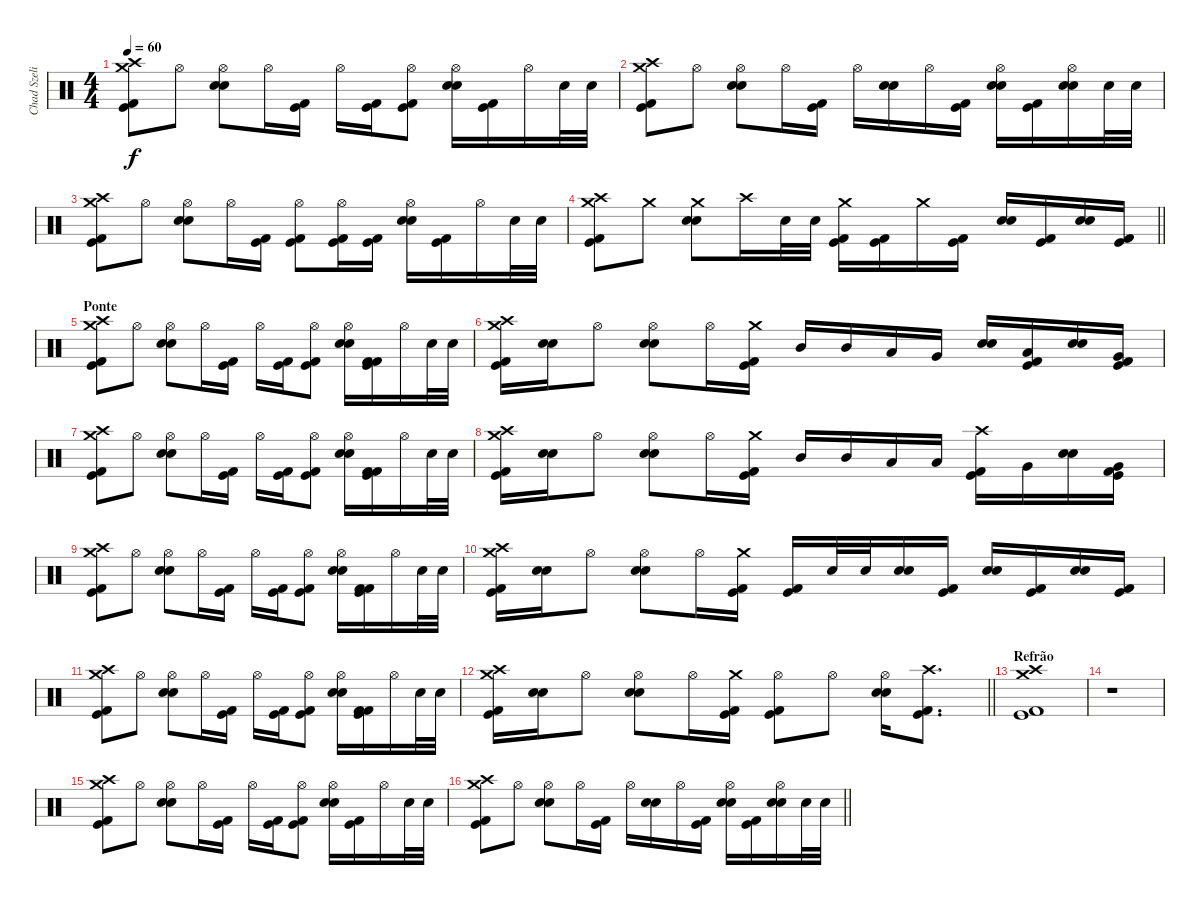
\track ("Chad Szeliga" "Chad Szeli") {instrument percussion}
\staff {score}
\articulation defaults
\ts (4 4)
\tempo 60
\clef neutral
\ks c
("Crash high (hit)" "Kick (hit) 2" "Kick (hit)" "Crash medium (hit)").8{dy f} "Hi-Hat (open)".8 ("Snare (hit) 2" "Snare (hit) 2" "Hi-Hat (open)").8 "Hi-Hat (open)".16 ("Kick (hit) 2" "Kick (hit)").16 "Hi-Hat (open)".16 ("Kick (hit) 2" "Kick (hit)").16 ("Kick (hit) 2" "Kick (hit)" "Hi-Hat (open)").8 ("Snare (hit) 2" "Snare (hit) 2" "Hi-Hat (open)").16 ("Kick (hit) 2" "Kick (hit)").16 "Hi-Hat (open)".16 "Snare (hit) 2".32 "Snare (hit) 2".32 |
("Crash high (hit)" "Kick (hit) 2" "Kick (hit)" "Crash medium (hit)").8 "Hi-Hat (open)".8 ("Snare (hit) 2" "Snare (hit) 2" "Hi-Hat (open)").8 "Hi-Hat (open)".16 ("Kick (hit) 2" "Kick (hit)").16 "Hi-Hat (open)".16 ("Snare (hit) 2" "Snare (hit) 2").16 "Hi-Hat (open)".16 ("Kick (hit) 2" "Kick (hit)").16 ("Snare (hit) 2" "Snare (hit) 2" "Hi-Hat (open)").16 ("Kick (hit) 2" "Kick (hit)").16 ("Snare (hit) 2" "Snare (hit) 2" "Hi-Hat (open)").16 "Snare (hit) 2".32 "Snare (hit) 2".32 |
("Crash high (hit)" "Kick (hit) 2" "Kick (hit)" "Crash medium (hit)").8 "Hi-Hat (open)".8 ("Snare (hit) 2" "Snare (hit) 2" "Hi-Hat (open)").8 "Hi-Hat (open)".16 ("Kick (hit) 2" "Kick (hit)").16 ("Kick (hit) 2" "Kick (hit)" "Hi-Hat (open)").8 ("Kick (hit) 2" "Kick (hit)" "Hi-Hat (open)").16 ("Kick (hit) 2" "Kick (hit)").16 ("Snare (hit) 2" "Snare (hit) 2" "Hi-Hat (open)").16 ("Kick (hit) 2" "Kick (hit)").16 "Hi-Hat (open)".16 "Snare (hit) 2".32 "Snare (hit) 2".32 |
\barLineRight lightlight
("Crash high (hit)" "Kick (hit) 2" "Kick (hit)" "Crash medium (hit)").8 "Crash medium (hit)".8 ("Crash medium (hit)" "Snare (hit) 2" "Snare (hit) 2").8 "Crash high (hit)".16 "Snare (hit) 2".32 "Snare (hit) 2".32 ("Crash medium (hit)" "Kick (hit) 2" "Kick (hit)").16 ("Kick (hit) 2" "Kick (hit)").16 "Crash medium (hit)".16 ("Kick (hit) 2" "Kick (hit)").16 ("Snare (hit) 2" "Snare (hit) 2").16 ("Kick (hit) 2" "Kick (hit)").16 ("Snare (hit) 2" "Snare (hit) 2").16 ("Kick (hit) 2" "Kick (hit)").16 |
\section ("" "Ponte")
("Crash high (hit)" "Kick (hit) 2" "Kick (hit)" "Crash medium (hit)").8 "Hi-Hat (open)".8 ("Snare (hit) 2" "Snare (hit) 2" "Hi-Hat (open)").8 "Hi-Hat (open)".16 ("Kick (hit) 2" "Kick (hit)").16 "Hi-Hat (open)".16 ("Kick (hit) 2" "Kick (hit)").16 ("Kick (hit) 2" "Kick (hit)" "Hi-Hat (open)").8 ("Snare (hit) 2" "Snare (hit) 2" "Hi-Hat (open)").16 ("Kick (hit) 2" "Kick (hit)" "Kick (hit) 2").16 "Hi-Hat (open)".16 "Snare (hit) 2".32 "Snare (hit) 2".32 |
("Crash high (hit)" "Kick (hit) 2" "Kick (hit)" "Crash medium (hit)").16 ("Snare (hit) 2" "Snare (hit) 2").16 "Hi-Hat (open)".8 ("Snare (hit) 2" "Snare (hit) 2" "Hi-Hat (open)").8 "Hi-Hat (open)".16 ("Crash medium (hit)" "Kick (hit) 2" "Kick (hit)").16 "Mid Tom (hit)".16 "Mid Tom (hit)".16 "Low Tom (hit)".16 "Very Low Tom (hit)".16 ("Snare (hit) 2" "Snare (hit) 2").16 ("Kick (hit) 2" "Kick (hit)" "Low Tom (hit)").16 ("Snare (hit) 2" "Snare (hit) 2").16 ("Kick (hit) 2" "Kick (hit)" "Very Low Tom (hit)").16 |
("Crash high (hit)" "Kick (hit) 2" "Kick (hit)" "Crash medium (hit)").8 "Hi-Hat (open)".8 ("Snare (hit) 2" "Snare (hit) 2" "Hi-Hat (open)").8 "Hi-Hat (open)".16 ("Kick (hit) 2" "Kick (hit)").16 "Hi-Hat (open)".16 ("Kick (hit) 2" "Kick (hit)").16 ("Kick (hit) 2" "Kick (hit)" "Hi-Hat (open)").8 ("Snare (hit) 2" "Snare (hit) 2" "Hi-Hat (open)").16 ("Kick (hit) 2" "Kick (hit)" "Kick (hit) 2").16 "Hi-Hat (open)".16 "Snare (hit) 2".32 "Snare (hit) 2".32 |
("Crash high (hit)" "Kick (hit) 2" "Kick (hit)" "Crash medium (hit)").16 ("Snare (hit) 2" "Snare (hit) 2").16 "Hi-Hat (open)".8 ("Snare (hit) 2" "Snare (hit) 2" "Hi-Hat (open)").8 "Hi-Hat (open)".16 ("Crash medium (hit)" "Kick (hit) 2" "Kick (hit)").16 "Mid Tom (hit)".16 "Mid Tom (hit)".16 "Low Tom (hit)".16 "Low Tom (hit)".16 ("Crash high (hit)" "Kick (hit) 2" "Kick (hit)").16 "Very Low Tom (hit)".16 ("Snare (hit) 2" "Snare (hit) 2").16 ("Kick (hit) 2" "Kick (hit)" "Very Low Tom (hit)").16 |
("Crash high (hit)" "Kick (hit) 2" "Kick (hit)" "Crash medium (hit)").8 "Hi-Hat (open)".8 ("Snare (hit) 2" "Snare (hit) 2" "Hi-Hat (open)").8 "Hi-Hat (open)".16 ("Kick (hit) 2" "Kick (hit)").16 "Hi-Hat (open)".16 ("Kick (hit) 2" "Kick (hit)").16 ("Kick (hit) 2" "Kick (hit)" "Hi-Hat (open)").8 ("Snare (hit) 2" "Snare (hit) 2" "Hi-Hat (open)").16 ("Kick (hit) 2" "Kick (hit)" "Kick (hit) 2").16 "Hi-Hat (open)".16 "Snare (hit) 2".32 "Snare (hit) 2".32 |
("Crash high (hit)" "Kick (hit) 2" "Kick (hit)" "Crash medium (hit)").16 ("Snare (hit) 2" "Snare (hit) 2").16 "Hi-Hat (open)".8 ("Snare (hit) 2" "Snare (hit) 2" "Hi-Hat (open)").8 "Hi-Hat (open)".16 ("Crash medium (hit)" "Kick (hit) 2" "Kick (hit)").16 ("Kick (hit) 2" "Kick (hit)").16 "Snare (hit) 2".32 "Snare (hit) 2".32 ("Snare (hit) 2" "Snare (hit) 2").16 ("Kick (hit) 2" "Kick (hit)").16 ("Snare (hit) 2" "Snare (hit) 2").16 ("Kick (hit) 2" "Kick (hit)").16 ("Snare (hit) 2" "Snare (hit) 2").16 ("Kick (hit) 2" "Kick (hit)").16 |
("Crash high (hit)" "Kick (hit) 2" "Kick (hit)" "Crash medium (hit)").8 "Hi-Hat (open)".8 ("Snare (hit) 2" "Snare (hit) 2" "Hi-Hat (open)").8 "Hi-Hat (open)".16 ("Kick (hit) 2" "Kick (hit)").16 "Hi-Hat (open)".16 ("Kick (hit) 2" "Kick (hit)").16 ("Kick (hit) 2" "Kick (hit)" "Hi-Hat (open)").8 ("Snare (hit) 2" "Snare (hit) 2" "Hi-Hat (open)").16 ("Kick (hit) 2" "Kick (hit)" "Kick (hit) 2").16 "Hi-Hat (open)".16 "Snare (hit) 2".32 "Snare (hit) 2".32 |
\barLineRight lightlight
("Crash high (hit)" "Kick (hit) 2" "Kick (hit)" "Crash medium (hit)").16 ("Snare (hit) 2" "Snare (hit) 2").16 "Hi-Hat (open)".8 ("Snare (hit) 2" "Snare (hit) 2" "Hi-Hat (open)").8 "Hi-Hat (open)".16 ("Crash medium (hit)" "Kick (hit) 2" "Kick (hit)").16 ("Kick (hit) 2" "Kick (hit)" "Hi-Hat (open)").8 "Hi-Hat (open)".8 ("Snare (hit) 2" "Snare (hit) 2" "Hi-Hat (open)").16 ("Crash high (hit)" "Kick (hit) 2" "Kick (hit)").8{d} |
\section ("" "Refrão")
("Crash high (hit)" "Kick (hit) 2" "Kick (hit)" "Crash medium (hit)").1 |
r.1 |
("Crash high (hit)" "Kick (hit) 2" "Kick (hit)" "Crash medium (hit)").8 "Hi-Hat (open)".8 ("Snare (hit) 2" "Snare (hit) 2" "Hi-Hat (open)").8 "Hi-Hat (open)".16 ("Kick (hit) 2" "Kick (hit)").16 "Hi-Hat (open)".16 ("Kick (hit) 2" "Kick (hit)").16 ("Kick (hit) 2" "Kick (hit)" "Hi-Hat (open)").8 ("Snare (hit) 2" "Snare (hit) 2" "Hi-Hat (open)").16 ("Kick (hit) 2" "Kick (hit)").16 "Hi-Hat (open)".16 "Snare (hit) 2".32 "Snare (hit) 2".32 |
\barLineRight lightlight
("Crash high (hit)" "Kick (hit) 2" "Kick (hit)" "Crash medium (hit)").8 "Hi-Hat (open)".8 ("Snare (hit) 2" "Snare (hit) 2" "Hi-Hat (open)").8 "Hi-Hat (open)".16 ("Kick (hit) 2" "Kick (hit)").16 "Hi-Hat (open)".16 ("Snare (hit) 2" "Snare (hit) 2").16 "Hi-Hat (open)".16 ("Kick (hit) 2" "Kick (hit)").16 ("Snare (hit) 2" "Snare (hit) 2" "Hi-Hat (open)").16 ("Kick (hit) 2" "Kick (hit)").16 ("Snare (hit) 2" "Snare (hit) 2" "Hi-Hat (open)").16 "Snare (hit) 2".32 "Snare (hit) 2".32
